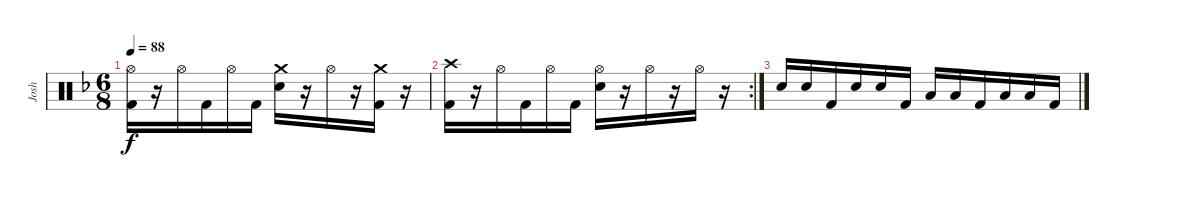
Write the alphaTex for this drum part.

\track ("Josh" "Josh") {instrument percussion}
\staff {score}
\articulation defaults
\ts (6 8)
\tempo 88
\clef neutral
\ks f
("Hi-Hat (open)" "Kick (hit) 2").16{dy f} r.16 "Hi-Hat (open)".16 "Kick (hit) 2".16 "Hi-Hat (open)".16 "Kick (hit) 2".16 ("Crash medium (hit)" "Snare (hit) 2").16 r.16 "Hi-Hat (open)".16 r.16 ("Crash medium (hit)" "Kick (hit) 2").16 r.16 |
\rc 2
("Crash high (hit)" "Kick (hit) 2").16 r.16 "Hi-Hat (open)".16 "Kick (hit) 2".16 "Hi-Hat (open)".16 "Kick (hit) 2".16 ("Hi-Hat (open)" "Snare (hit) 2").16 r.16 "Hi-Hat (open)".16 r.16 "Hi-Hat (open)".16 r.16 |
"Snare (hit) 2".16 "Snare (hit) 2".16 "Kick (hit) 2".16 "Snare (hit) 2".16 "Snare (hit) 2".16 "Kick (hit) 2".16 "Low Tom (hit)".16 "Low Tom (hit)".16 "Kick (hit) 2".16 "Low Tom (hit)".16 "Low Tom (hit)".16 "Kick (hit) 2".16
